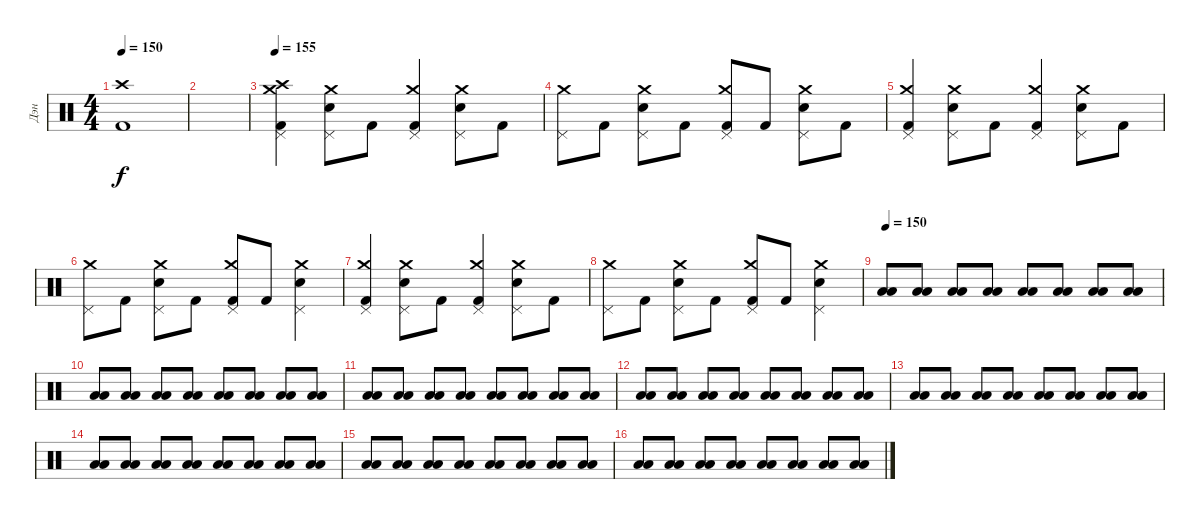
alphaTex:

\track ("Дэн" "Дэн") {instrument percussion}
\staff {score}
\articulation defaults
\ts (4 4)
\tempo 150
\clef neutral
\ks c
("Crash high (hit)" "Kick (hit) 2").1{dy f} |
|
\tempo 155
("Crash high (hit)" "Crash medium (hit)" "Pedal Hi-Hat (hit)" "Kick (hit) 2").4 ("Crash medium (hit)" "Pedal Hi-Hat (hit)" "Snare (hit) 2").8 "Kick (hit) 2".8 ("Crash medium (hit)" "Pedal Hi-Hat (hit)" "Kick (hit) 2").4 ("Crash medium (hit)" "Pedal Hi-Hat (hit)" "Snare (hit) 2").8 "Kick (hit) 2".8 |
("Crash medium (hit)" "Pedal Hi-Hat (hit)").8 "Kick (hit) 2".8 ("Crash medium (hit)" "Pedal Hi-Hat (hit)" "Snare (hit) 2").8 "Kick (hit) 2".8 ("Crash medium (hit)" "Pedal Hi-Hat (hit)" "Kick (hit) 2").8 "Kick (hit) 2".8 ("Crash medium (hit)" "Pedal Hi-Hat (hit)" "Snare (hit) 2").8 "Kick (hit) 2".8 |
("Crash medium (hit)" "Pedal Hi-Hat (hit)" "Kick (hit) 2").4 ("Crash medium (hit)" "Pedal Hi-Hat (hit)" "Snare (hit) 2").8 "Kick (hit) 2".8 ("Crash medium (hit)" "Pedal Hi-Hat (hit)" "Kick (hit) 2").4 ("Crash medium (hit)" "Pedal Hi-Hat (hit)" "Snare (hit) 2").8 "Kick (hit) 2".8 |
("Crash medium (hit)" "Pedal Hi-Hat (hit)").8 "Kick (hit) 2".8 ("Crash medium (hit)" "Pedal Hi-Hat (hit)" "Snare (hit) 2").8 "Kick (hit) 2".8 ("Crash medium (hit)" "Pedal Hi-Hat (hit)" "Kick (hit) 2").8 "Kick (hit) 2".8 ("Crash medium (hit)" "Pedal Hi-Hat (hit)" "Snare (hit) 2").4 |
("Crash medium (hit)" "Pedal Hi-Hat (hit)" "Kick (hit) 2").4 ("Crash medium (hit)" "Pedal Hi-Hat (hit)" "Snare (hit) 2").8 "Kick (hit) 2".8 ("Crash medium (hit)" "Pedal Hi-Hat (hit)" "Kick (hit) 2").4 ("Crash medium (hit)" "Pedal Hi-Hat (hit)" "Snare (hit) 2").8 "Kick (hit) 2".8 |
("Crash medium (hit)" "Pedal Hi-Hat (hit)").8 "Kick (hit) 2".8 ("Crash medium (hit)" "Pedal Hi-Hat (hit)" "Snare (hit) 2").8 "Kick (hit) 2".8 ("Crash medium (hit)" "Pedal Hi-Hat (hit)" "Kick (hit) 2").8 "Kick (hit) 2".8 ("Crash medium (hit)" "Pedal Hi-Hat (hit)" "Snare (hit) 2").4 |
\tempo 150
("Low Tom (hit)" "Low Floor Tom (hit)").8{volume 10} ("Low Tom (hit)" "Low Floor Tom (hit)").8 ("Low Tom (hit)" "Low Floor Tom (hit)").8 ("Low Tom (hit)" "Low Floor Tom (hit)").8 ("Low Tom (hit)" "Low Floor Tom (hit)").8 ("Low Tom (hit)" "Low Floor Tom (hit)").8 ("Low Tom (hit)" "Low Floor Tom (hit)").8 ("Low Tom (hit)" "Low Floor Tom (hit)").8 |
("Low Tom (hit)" "Low Floor Tom (hit)").8{volume 16} ("Low Tom (hit)" "Low Floor Tom (hit)").8 ("Low Tom (hit)" "Low Floor Tom (hit)").8 ("Low Tom (hit)" "Low Floor Tom (hit)").8 ("Low Tom (hit)" "Low Floor Tom (hit)").8 ("Low Tom (hit)" "Low Floor Tom (hit)").8 ("Low Tom (hit)" "Low Floor Tom (hit)").8 ("Low Tom (hit)" "Low Floor Tom (hit)").8 |
("Low Tom (hit)" "Low Floor Tom (hit)").8{volume 10} ("Low Tom (hit)" "Low Floor Tom (hit)").8 ("Low Tom (hit)" "Low Floor Tom (hit)").8 ("Low Tom (hit)" "Low Floor Tom (hit)").8 ("Low Tom (hit)" "Low Floor Tom (hit)").8 ("Low Tom (hit)" "Low Floor Tom (hit)").8 ("Low Tom (hit)" "Low Floor Tom (hit)").8 ("Low Tom (hit)" "Low Floor Tom (hit)").8 |
("Low Tom (hit)" "Low Floor Tom (hit)").8{volume 16} ("Low Tom (hit)" "Low Floor Tom (hit)").8 ("Low Tom (hit)" "Low Floor Tom (hit)").8 ("Low Tom (hit)" "Low Floor Tom (hit)").8 ("Low Tom (hit)" "Low Floor Tom (hit)").8 ("Low Tom (hit)" "Low Floor Tom (hit)").8 ("Low Tom (hit)" "Low Floor Tom (hit)").8 ("Low Tom (hit)" "Low Floor Tom (hit)").8 |
("Low Tom (hit)" "Low Floor Tom (hit)").8{volume 10} ("Low Tom (hit)" "Low Floor Tom (hit)").8 ("Low Tom (hit)" "Low Floor Tom (hit)").8 ("Low Tom (hit)" "Low Floor Tom (hit)").8 ("Low Tom (hit)" "Low Floor Tom (hit)").8 ("Low Tom (hit)" "Low Floor Tom (hit)").8 ("Low Tom (hit)" "Low Floor Tom (hit)").8 ("Low Tom (hit)" "Low Floor Tom (hit)").8 |
("Low Tom (hit)" "Low Floor Tom (hit)").8{volume 16} ("Low Tom (hit)" "Low Floor Tom (hit)").8 ("Low Tom (hit)" "Low Floor Tom (hit)").8 ("Low Tom (hit)" "Low Floor Tom (hit)").8 ("Low Tom (hit)" "Low Floor Tom (hit)").8 ("Low Tom (hit)" "Low Floor Tom (hit)").8 ("Low Tom (hit)" "Low Floor Tom (hit)").8 ("Low Tom (hit)" "Low Floor Tom (hit)").8 |
("Low Tom (hit)" "Low Floor Tom (hit)").8{volume 10} ("Low Tom (hit)" "Low Floor Tom (hit)").8 ("Low Tom (hit)" "Low Floor Tom (hit)").8 ("Low Tom (hit)" "Low Floor Tom (hit)").8 ("Low Tom (hit)" "Low Floor Tom (hit)").8 ("Low Tom (hit)" "Low Floor Tom (hit)").8 ("Low Tom (hit)" "Low Floor Tom (hit)").8 ("Low Tom (hit)" "Low Floor Tom (hit)").8 |
("Low Tom (hit)" "Low Floor Tom (hit)").8{volume 16} ("Low Tom (hit)" "Low Floor Tom (hit)").8 ("Low Tom (hit)" "Low Floor Tom (hit)").8 ("Low Tom (hit)" "Low Floor Tom (hit)").8 ("Low Tom (hit)" "Low Floor Tom (hit)").8 ("Low Tom (hit)" "Low Floor Tom (hit)").8 ("Low Tom (hit)" "Low Floor Tom (hit)").8 ("Low Tom (hit)" "Low Floor Tom (hit)").8
